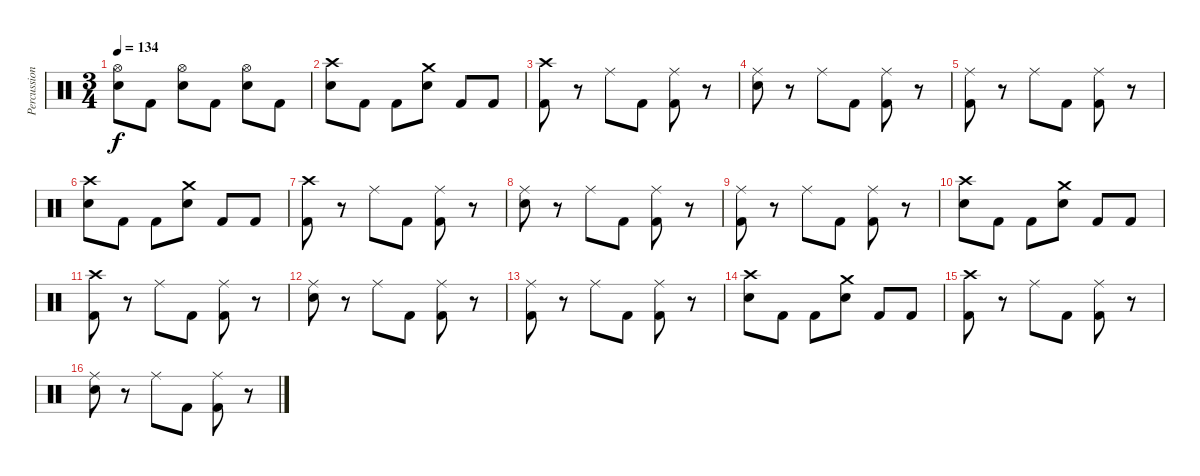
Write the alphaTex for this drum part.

\track ("Percussion" "Percussion") {instrument percussion}
\staff {score}
\articulation defaults
\ts (3 4)
\tempo 134
\clef neutral
\ks c
("Hi-Hat (open)" "Snare (hit) 2").8{dy f} "Kick (hit) 2".8 ("Hi-Hat (open)" "Snare (hit) 2").8 "Kick (hit) 2".8 ("Hi-Hat (open)" "Snare (hit) 2").8 "Kick (hit) 2".8 |
("Crash high (hit)" "Snare (hit) 2").8 "Kick (hit) 2".8 "Kick (hit) 2".8 ("Crash medium (hit)" "Snare (hit) 2").8 "Kick (hit) 2".8 "Kick (hit) 2".8 |
("Crash high (hit)" "Kick (hit) 2").8 r.8 "Ride (middle)".8 "Kick (hit) 2".8 ("Ride (middle)" "Kick (hit) 2").8 r.8 |
("Ride (middle)" "Snare (hit) 2").8 r.8 "Ride (middle)".8 "Kick (hit) 2".8 ("Ride (middle)" "Kick (hit) 2").8 r.8 |
("Ride (middle)" "Kick (hit) 2").8 r.8 "Ride (middle)".8 "Kick (hit) 2".8 ("Ride (middle)" "Kick (hit) 2").8 r.8 |
("Crash high (hit)" "Snare (hit) 2").8 "Kick (hit) 2".8 "Kick (hit) 2".8 ("Crash medium (hit)" "Snare (hit) 2").8 "Kick (hit) 2".8 "Kick (hit) 2".8 |
("Crash high (hit)" "Kick (hit) 2").8 r.8 "Ride (middle)".8 "Kick (hit) 2".8 ("Ride (middle)" "Kick (hit) 2").8 r.8 |
("Ride (middle)" "Snare (hit) 2").8 r.8 "Ride (middle)".8 "Kick (hit) 2".8 ("Ride (middle)" "Kick (hit) 2").8 r.8 |
("Ride (middle)" "Kick (hit) 2").8 r.8 "Ride (middle)".8 "Kick (hit) 2".8 ("Ride (middle)" "Kick (hit) 2").8 r.8 |
("Crash high (hit)" "Snare (hit) 2").8 "Kick (hit) 2".8 "Kick (hit) 2".8 ("Crash medium (hit)" "Snare (hit) 2").8 "Kick (hit) 2".8 "Kick (hit) 2".8 |
("Crash high (hit)" "Kick (hit) 2").8 r.8 "Ride (middle)".8 "Kick (hit) 2".8 ("Ride (middle)" "Kick (hit) 2").8 r.8 |
("Ride (middle)" "Snare (hit) 2").8 r.8 "Ride (middle)".8 "Kick (hit) 2".8 ("Ride (middle)" "Kick (hit) 2").8 r.8 |
("Ride (middle)" "Kick (hit) 2").8 r.8 "Ride (middle)".8 "Kick (hit) 2".8 ("Ride (middle)" "Kick (hit) 2").8 r.8 |
("Crash high (hit)" "Snare (hit) 2").8 "Kick (hit) 2".8 "Kick (hit) 2".8 ("Crash medium (hit)" "Snare (hit) 2").8 "Kick (hit) 2".8 "Kick (hit) 2".8 |
("Crash high (hit)" "Kick (hit) 2").8 r.8 "Ride (middle)".8 "Kick (hit) 2".8 ("Ride (middle)" "Kick (hit) 2").8 r.8 |
("Ride (middle)" "Snare (hit) 2").8 r.8 "Ride (middle)".8 "Kick (hit) 2".8 ("Ride (middle)" "Kick (hit) 2").8 r.8
